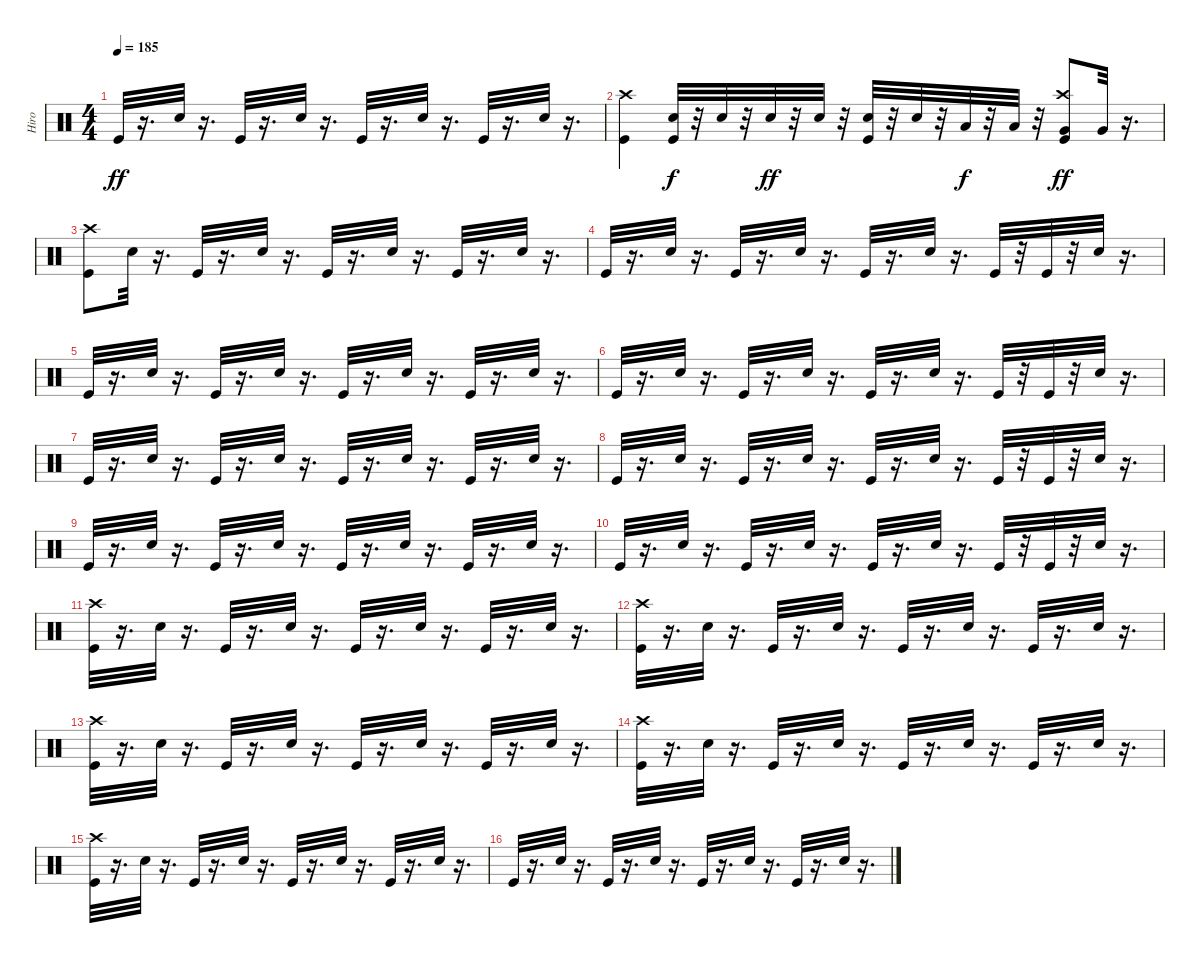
\track ("Hiro" "Hiro") {instrument percussion}
\staff {score}
\articulation defaults
\ts (4 4)
\tempo 185
\clef neutral
\ks c "Kick (hit)".32{dy ff}
r.16{d} "Electric Snare (hit)".32 r.16{d} "Kick (hit)".32 r.16{d} "Electric Snare (hit)".32 r.16{d} "Kick (hit)".32 r.16{d} "Electric Snare (hit)".32 r.16{d} "Kick (hit)".32 r.16{d} "Electric Snare (hit)".32 r.16{d} |
("Kick (hit)" "Crash high (hit)").4 ("Electric Snare (hit)" "Kick (hit)").32{dy f} r.32 "Electric Snare (hit)".32 r.32 "Electric Snare (hit)".32{dy ff} r.32 "Electric Snare (hit)".32 r.32 ("Kick (hit)" "Electric Snare (hit)").32 r.32 "Electric Snare (hit)".32 r.32 "Low Tom (hit)".32{dy f} r.32 "Low Tom (hit)".32 r.32 ("Crash high (hit)" "Kick (hit)" "Very Low Tom (hit)").8{dy ff} "Very Low Tom (hit)".32 r.16{d} |
("Crash high (hit)" "Kick (hit)").8 "Electric Snare (hit)".32 r.16{d} "Kick (hit)".32 r.16{d} "Electric Snare (hit)".32 r.16{d} "Kick (hit)".32 r.16{d} "Electric Snare (hit)".32 r.16{d} "Kick (hit)".32 r.16{d} "Electric Snare (hit)".32 r.16{d} |
"Kick (hit)".32 r.16{d} "Electric Snare (hit)".32 r.16{d} "Kick (hit)".32 r.16{d} "Electric Snare (hit)".32 r.16{d} "Kick (hit)".32 r.16{d} "Electric Snare (hit)".32 r.16{d} "Kick (hit)".32 r.32 "Kick (hit)".32 r.32 "Electric Snare (hit)".32 r.16{d} |
"Kick (hit)".32 r.16{d} "Electric Snare (hit)".32 r.16{d} "Kick (hit)".32 r.16{d} "Electric Snare (hit)".32 r.16{d} "Kick (hit)".32 r.16{d} "Electric Snare (hit)".32 r.16{d} "Kick (hit)".32 r.16{d} "Electric Snare (hit)".32 r.16{d} |
"Kick (hit)".32 r.16{d} "Electric Snare (hit)".32 r.16{d} "Kick (hit)".32 r.16{d} "Electric Snare (hit)".32 r.16{d} "Kick (hit)".32 r.16{d} "Electric Snare (hit)".32 r.16{d} "Kick (hit)".32 r.32 "Kick (hit)".32 r.32 "Electric Snare (hit)".32 r.16{d} |
"Kick (hit)".32 r.16{d} "Electric Snare (hit)".32 r.16{d} "Kick (hit)".32 r.16{d} "Electric Snare (hit)".32 r.16{d} "Kick (hit)".32 r.16{d} "Electric Snare (hit)".32 r.16{d} "Kick (hit)".32 r.16{d} "Electric Snare (hit)".32 r.16{d} |
"Kick (hit)".32 r.16{d} "Electric Snare (hit)".32 r.16{d} "Kick (hit)".32 r.16{d} "Electric Snare (hit)".32 r.16{d} "Kick (hit)".32 r.16{d} "Electric Snare (hit)".32 r.16{d} "Kick (hit)".32 r.32 "Kick (hit)".32 r.32 "Electric Snare (hit)".32 r.16{d} |
"Kick (hit)".32 r.16{d} "Electric Snare (hit)".32 r.16{d} "Kick (hit)".32 r.16{d} "Electric Snare (hit)".32 r.16{d} "Kick (hit)".32 r.16{d} "Electric Snare (hit)".32 r.16{d} "Kick (hit)".32 r.16{d} "Electric Snare (hit)".32 r.16{d} |
"Kick (hit)".32 r.16{d} "Electric Snare (hit)".32 r.16{d} "Kick (hit)".32 r.16{d} "Electric Snare (hit)".32 r.16{d} "Kick (hit)".32 r.16{d} "Electric Snare (hit)".32 r.16{d} "Kick (hit)".32 r.32 "Kick (hit)".32 r.32 "Electric Snare (hit)".32 r.16{d} |
("Crash high (hit)" "Kick (hit)").32 r.16{d} "Electric Snare (hit)".32 r.16{d} "Kick (hit)".32 r.16{d} "Electric Snare (hit)".32 r.16{d} "Kick (hit)".32 r.16{d} "Electric Snare (hit)".32 r.16{d} "Kick (hit)".32 r.16{d} "Electric Snare (hit)".32 r.16{d} |
("Crash high (hit)" "Kick (hit)").32 r.16{d} "Electric Snare (hit)".32 r.16{d} "Kick (hit)".32 r.16{d} "Electric Snare (hit)".32 r.16{d} "Kick (hit)".32 r.16{d} "Electric Snare (hit)".32 r.16{d} "Kick (hit)".32 r.16{d} "Electric Snare (hit)".32 r.16{d} |
("Crash high (hit)" "Kick (hit)").32 r.16{d} "Electric Snare (hit)".32 r.16{d} "Kick (hit)".32 r.16{d} "Electric Snare (hit)".32 r.16{d} "Kick (hit)".32 r.16{d} "Electric Snare (hit)".32 r.16{d} "Kick (hit)".32 r.16{d} "Electric Snare (hit)".32 r.16{d} |
("Crash high (hit)" "Kick (hit)").32 r.16{d} "Electric Snare (hit)".32 r.16{d} "Kick (hit)".32 r.16{d} "Electric Snare (hit)".32 r.16{d} "Kick (hit)".32 r.16{d} "Electric Snare (hit)".32 r.16{d} "Kick (hit)".32 r.16{d} "Electric Snare (hit)".32 r.16{d} |
("Crash high (hit)" "Kick (hit)").32 r.16{d} "Electric Snare (hit)".32 r.16{d} "Kick (hit)".32 r.16{d} "Electric Snare (hit)".32 r.16{d} "Kick (hit)".32 r.16{d} "Electric Snare (hit)".32 r.16{d} "Kick (hit)".32 r.16{d} "Electric Snare (hit)".32 r.16{d} |
"Kick (hit)".32 r.16{d} "Electric Snare (hit)".32 r.16{d} "Kick (hit)".32 r.16{d} "Electric Snare (hit)".32 r.16{d} "Kick (hit)".32 r.16{d} "Electric Snare (hit)".32 r.16{d} "Kick (hit)".32 r.16{d} "Electric Snare (hit)".32 r.16{d}
